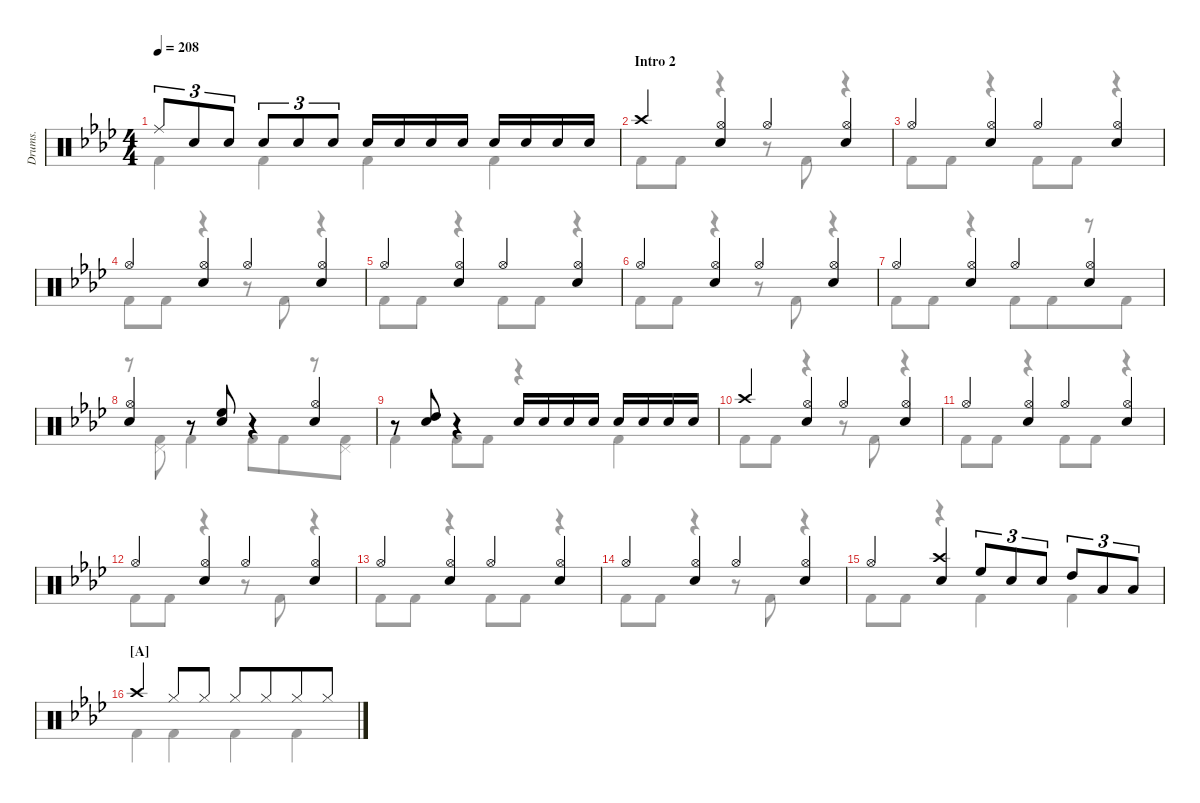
\defaultSystemsLayout 4
\hideDynamics
\otherSystemsTrackNameOrientation horizontal
\track ("Drumkit" "Drums.") {defaultSystemsLayout 4 instrument percussion}
\staff {score}
\articulation defaults
\voice
\ts (4 4)
\tempo 208
\clef neutral
\ks fminor "Ride (middle)"{acc forcenatural}.8{tu (3 2) dy mf} "Snare (hit) 2"{acc forcenatural}.8{tu (3 2)} "Snare (hit) 2"{acc forcenatural}.8{tu (3 2)} "Snare (hit) 2"{acc forcenatural}.8{tu (3 2)} "Snare (hit) 2"{acc forcenatural}.8{tu (3 2)} "Snare (hit) 2"{acc forcenatural}.8{tu (3 2)} "Snare (hit) 2"{acc forcenatural}.16 "Snare (hit) 2"{acc forcenatural}.16 "Snare (hit) 2"{acc forcenatural}.16 "Snare (hit) 2"{acc forcenatural}.16 "Snare (hit) 2"{acc forcenatural}.16 "Snare (hit) 2"{acc forcenatural}.16 "Snare (hit) 2"{acc forcenatural}.16 "Snare (hit) 2"{acc forcenatural}.16
|
\section ("" "Intro 2")
"Crash high (hit)"{acc forcenatural}.4 ("Hi-Hat (open)"{acc forcenatural} "Snare (hit) 2"{acc forcenatural}).4 "Hi-Hat (open)"{acc forcenatural}.4 ("Hi-Hat (open)"{acc forcenatural} "Snare (hit) 2"{acc forcenatural}).4 |
"Hi-Hat (open)"{acc forcenatural}.4 ("Hi-Hat (open)"{acc forcenatural} "Snare (hit) 2"{acc forcenatural}).4 "Hi-Hat (open)"{acc forcenatural}.4 ("Hi-Hat (open)"{acc forcenatural} "Snare (hit) 2"{acc forcenatural}).4 |
"Hi-Hat (open)"{acc forcenatural}.4 ("Hi-Hat (open)"{acc forcenatural} "Snare (hit) 2"{acc forcenatural}).4 "Hi-Hat (open)"{acc forcenatural}.4 ("Hi-Hat (open)"{acc forcenatural} "Snare (hit) 2"{acc forcenatural}).4 |
"Hi-Hat (open)"{acc forcenatural}.4 ("Hi-Hat (open)"{acc forcenatural} "Snare (hit) 2"{acc forcenatural}).4 "Hi-Hat (open)"{acc forcenatural}.4 ("Hi-Hat (open)"{acc forcenatural} "Snare (hit) 2"{acc forcenatural}).4 |
"Hi-Hat (open)"{acc forcenatural}.4 ("Hi-Hat (open)"{acc forcenatural} "Snare (hit) 2"{acc forcenatural}).4 "Hi-Hat (open)"{acc forcenatural}.4 ("Hi-Hat (open)"{acc forcenatural} "Snare (hit) 2"{acc forcenatural}).4 |
"Hi-Hat (open)"{acc forcenatural}.4 ("Hi-Hat (open)"{acc forcenatural} "Snare (hit) 2"{acc forcenatural}).4 "Hi-Hat (open)"{acc forcenatural}.4 ("Hi-Hat (open)"{acc forcenatural} "Snare (hit) 2"{acc forcenatural}).4 |
("Hi-Hat (open)"{acc forcenatural} "Snare (hit) 2"{acc forcenatural}).4 r.8 ("Snare (hit) 2"{acc forcenatural} "High Floor Tom (hit)"{acc forcenatural}).8 r.4 ("Hi-Hat (open)"{acc forcenatural} "Snare (hit) 2"{acc forcenatural}).4 |
r.8 ("High Tom (hit)"{acc forcenatural} "Snare (hit) 2"{acc forcenatural}).8 r.4 "Snare (hit) 2"{acc forcenatural}.16 "Snare (hit) 2"{acc forcenatural}.16 "Snare (hit) 2"{acc forcenatural}.16 "Snare (hit) 2"{acc forcenatural}.16 "Snare (hit) 2"{acc forcenatural}.16 "Snare (hit) 2"{acc forcenatural}.16 "Snare (hit) 2"{acc forcenatural}.16 "Snare (hit) 2"{acc forcenatural}.16 |
"Crash high (hit)"{acc forcenatural}.4 ("Hi-Hat (open)"{acc forcenatural} "Snare (hit) 2"{acc forcenatural}).4 "Hi-Hat (open)"{acc forcenatural}.4 ("Hi-Hat (open)"{acc forcenatural} "Snare (hit) 2"{acc forcenatural}).4 |
"Hi-Hat (open)"{acc forcenatural}.4 ("Hi-Hat (open)"{acc forcenatural} "Snare (hit) 2"{acc forcenatural}).4 "Hi-Hat (open)"{acc forcenatural}.4 ("Hi-Hat (open)"{acc forcenatural} "Snare (hit) 2"{acc forcenatural}).4 |
"Hi-Hat (open)"{acc forcenatural}.4 ("Hi-Hat (open)"{acc forcenatural} "Snare (hit) 2"{acc forcenatural}).4 "Hi-Hat (open)"{acc forcenatural}.4 ("Hi-Hat (open)"{acc forcenatural} "Snare (hit) 2"{acc forcenatural}).4 |
"Hi-Hat (open)"{acc forcenatural}.4 ("Hi-Hat (open)"{acc forcenatural} "Snare (hit) 2"{acc forcenatural}).4 "Hi-Hat (open)"{acc forcenatural}.4 ("Hi-Hat (open)"{acc forcenatural} "Snare (hit) 2"{acc forcenatural}).4 |
"Hi-Hat (open)"{acc forcenatural}.4 ("Hi-Hat (open)"{acc forcenatural} "Snare (hit) 2"{acc forcenatural}).4 "Hi-Hat (open)"{acc forcenatural}.4 ("Hi-Hat (open)"{acc forcenatural} "Snare (hit) 2"{acc forcenatural}).4 |
"Hi-Hat (open)"{acc forcenatural}.4 ("Crash high (hit)"{acc forcenatural} "Snare (hit) 2"{acc forcenatural}).4 "High Floor Tom (hit)"{acc forcenatural}.8{tu (3 2)} "Snare (hit) 2"{acc forcenatural}.8{tu (3 2)} "Snare (hit) 2"{acc forcenatural}.8{tu (3 2)} "High Tom (hit)"{acc forcenatural}.8{tu (3 2)} "Low Tom (hit)"{acc forcenatural}.8{tu (3 2)} "Low Tom (hit)"{acc forcenatural}.8{tu (3 2)} |
\section ("A" "")
"Crash high (hit)"{acc forcenatural}.4 "Hi-Hat (closed)"{acc forcenatural}.8 "Hi-Hat (closed)"{acc forcenatural}.8 "Hi-Hat (closed)"{acc forcenatural}.8{beam merge} "Hi-Hat (closed)"{acc forcenatural}.8{beam merge} "Hi-Hat (closed)"{acc forcenatural}.8{beam merge} "Hi-Hat (closed)"{acc forcenatural}.8
\voice
\clef neutral
\ottava regular
\simile none
\ks fminor "Kick (hit) 2"{acc forcenatural}.4{dy mf} "Kick (hit) 2"{acc forcenatural}.4 "Kick (hit) 2"{acc forcenatural}.4 "Kick (hit) 2"{acc forcenatural}.4
|
"Kick (hit) 2"{acc forcenatural}.8 "Kick (hit) 2"{acc forcenatural}.8 r.4 r.8 "Kick (hit) 2"{acc forcenatural}.8 r.4 |
"Kick (hit) 2"{acc forcenatural}.8 "Kick (hit) 2"{acc forcenatural}.8 r.4 "Kick (hit) 2"{acc forcenatural}.8 "Kick (hit) 2"{acc forcenatural}.8 r.4 |
"Kick (hit) 2"{acc forcenatural}.8 "Kick (hit) 2"{acc forcenatural}.8 r.4 r.8 "Kick (hit) 2"{acc forcenatural}.8 r.4 |
"Kick (hit) 2"{acc forcenatural}.8 "Kick (hit) 2"{acc forcenatural}.8 r.4 "Kick (hit) 2"{acc forcenatural}.8 "Kick (hit) 2"{acc forcenatural}.8 r.4 |
"Kick (hit) 2"{acc forcenatural}.8 "Kick (hit) 2"{acc forcenatural}.8 r.4 r.8 "Kick (hit) 2"{acc forcenatural}.8 r.4 |
"Kick (hit) 2"{acc forcenatural}.8 "Kick (hit) 2"{acc forcenatural}.8 r.4 "Kick (hit) 2"{acc forcenatural}.8 "Kick (hit) 2"{acc forcenatural}.8{beam merge} r.8{beam merge} "Kick (hit) 2"{acc forcenatural}.8 |
r.8 ("Kick (hit) 2"{acc forcenatural} "Pedal Hi-Hat (hit)"{acc forcenatural}).8 "Kick (hit) 2"{acc forcenatural}.4 "Kick (hit) 2"{acc forcenatural}.8 "Kick (hit) 2"{acc forcenatural}.8{beam merge} r.8{beam merge} ("Kick (hit) 2"{acc forcenatural} "Pedal Hi-Hat (hit)"{acc forcenatural}).8 |
"Kick (hit) 2"{acc forcenatural}.4 "Kick (hit) 2"{acc forcenatural}.8 "Kick (hit) 2"{acc forcenatural}.8 r.4 "Kick (hit) 2"{acc forcenatural}.4 |
"Kick (hit) 2"{acc forcenatural}.8 "Kick (hit) 2"{acc forcenatural}.8 r.4 r.8 "Kick (hit) 2"{acc forcenatural}.8 r.4 |
"Kick (hit) 2"{acc forcenatural}.8 "Kick (hit) 2"{acc forcenatural}.8 r.4 "Kick (hit) 2"{acc forcenatural}.8 "Kick (hit) 2"{acc forcenatural}.8 r.4 |
"Kick (hit) 2"{acc forcenatural}.8 "Kick (hit) 2"{acc forcenatural}.8 r.4 r.8 "Kick (hit) 2"{acc forcenatural}.8 r.4 |
"Kick (hit) 2"{acc forcenatural}.8 "Kick (hit) 2"{acc forcenatural}.8 r.4 "Kick (hit) 2"{acc forcenatural}.8 "Kick (hit) 2"{acc forcenatural}.8 r.4 |
"Kick (hit) 2"{acc forcenatural}.8 "Kick (hit) 2"{acc forcenatural}.8 r.4 r.8 "Kick (hit) 2"{acc forcenatural}.8 r.4 |
"Kick (hit) 2"{acc forcenatural}.8 "Kick (hit) 2"{acc forcenatural}.8 r.4 "Kick (hit) 2"{acc forcenatural}.4 "Kick (hit) 2"{acc forcenatural}.4 |
"Kick (hit) 2"{acc forcenatural}.4 "Kick (hit) 2"{acc forcenatural}.4 "Kick (hit) 2"{acc forcenatural}.4 "Kick (hit) 2"{acc forcenatural}.4
